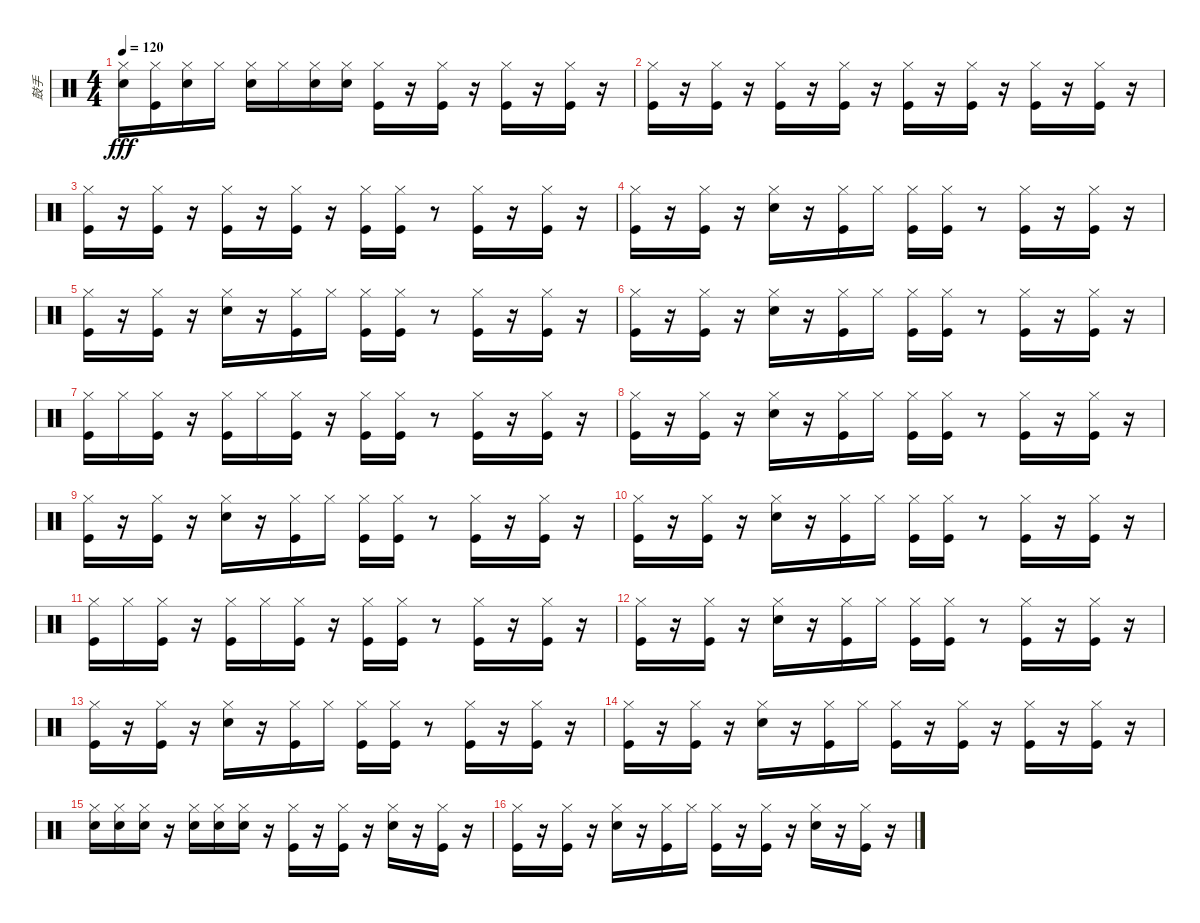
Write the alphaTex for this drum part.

\track ("鼓手" "鼓手") {instrument percussion}
\staff {score}
\articulation defaults
\ts (4 4)
\tempo 120
\clef neutral
\ks c
("Snare (hit) 2" "Hi-Hat (closed)").16{dy fff} ("Kick (hit)" "Hi-Hat (closed)").16 ("Snare (hit) 2" "Hi-Hat (closed)").16 "Hi-Hat (closed)".16 ("Snare (hit) 2" "Hi-Hat (closed)").16 "Hi-Hat (closed)".16 ("Snare (hit) 2" "Hi-Hat (closed)").16 ("Snare (hit) 2" "Hi-Hat (closed)").16 ("Kick (hit)" "Hi-Hat (closed)").16 r.16 ("Kick (hit)" "Hi-Hat (closed)").16 r.16 ("Kick (hit)" "Hi-Hat (closed)").16 r.16 ("Kick (hit)" "Hi-Hat (closed)").16 r.16 |
("Kick (hit)" "Hi-Hat (closed)").16 r.16 ("Kick (hit)" "Hi-Hat (closed)").16 r.16 ("Kick (hit)" "Hi-Hat (closed)").16 r.16 ("Kick (hit)" "Hi-Hat (closed)").16 r.16 ("Kick (hit)" "Hi-Hat (closed)").16 r.16 ("Kick (hit)" "Hi-Hat (closed)").16 r.16 ("Kick (hit)" "Hi-Hat (closed)").16 r.16 ("Kick (hit)" "Hi-Hat (closed)").16 r.16 |
("Kick (hit)" "Hi-Hat (closed)").16 r.16 ("Kick (hit)" "Hi-Hat (closed)").16 r.16 ("Kick (hit)" "Hi-Hat (closed)").16 r.16 ("Kick (hit)" "Hi-Hat (closed)").16 r.16 ("Kick (hit)" "Hi-Hat (closed)").16 ("Kick (hit)" "Hi-Hat (closed)").16 r.8 ("Kick (hit)" "Hi-Hat (closed)").16 r.16 ("Kick (hit)" "Hi-Hat (closed)").16 r.16 |
("Kick (hit)" "Hi-Hat (closed)").16 r.16 ("Kick (hit)" "Hi-Hat (closed)").16 r.16 ("Snare (hit) 2" "Hi-Hat (closed)").16 r.16 ("Kick (hit)" "Hi-Hat (closed)").16 "Hi-Hat (closed)".16 ("Kick (hit)" "Hi-Hat (closed)").16 ("Kick (hit)" "Hi-Hat (closed)").16 r.8 ("Kick (hit)" "Hi-Hat (closed)").16 r.16 ("Kick (hit)" "Hi-Hat (closed)").16 r.16 |
("Kick (hit)" "Hi-Hat (closed)").16 r.16 ("Kick (hit)" "Hi-Hat (closed)").16 r.16 ("Snare (hit) 2" "Hi-Hat (closed)").16 r.16 ("Kick (hit)" "Hi-Hat (closed)").16 "Hi-Hat (closed)".16 ("Kick (hit)" "Hi-Hat (closed)").16 ("Kick (hit)" "Hi-Hat (closed)").16 r.8 ("Kick (hit)" "Hi-Hat (closed)").16 r.16 ("Kick (hit)" "Hi-Hat (closed)").16 r.16 |
("Kick (hit)" "Hi-Hat (closed)").16 r.16 ("Kick (hit)" "Hi-Hat (closed)").16 r.16 ("Snare (hit) 2" "Hi-Hat (closed)").16 r.16 ("Kick (hit)" "Hi-Hat (closed)").16 "Hi-Hat (closed)".16 ("Kick (hit)" "Hi-Hat (closed)").16 ("Kick (hit)" "Hi-Hat (closed)").16 r.8 ("Kick (hit)" "Hi-Hat (closed)").16 r.16 ("Kick (hit)" "Hi-Hat (closed)").16 r.16 |
("Kick (hit)" "Hi-Hat (closed)").16 "Hi-Hat (closed)".16 ("Kick (hit)" "Hi-Hat (closed)").16 r.16 ("Kick (hit)" "Hi-Hat (closed)").16 "Hi-Hat (closed)".16 ("Kick (hit)" "Hi-Hat (closed)").16 r.16 ("Kick (hit)" "Hi-Hat (closed)").16 ("Kick (hit)" "Hi-Hat (closed)").16 r.8 ("Kick (hit)" "Hi-Hat (closed)").16 r.16 ("Kick (hit)" "Hi-Hat (closed)").16 r.16 |
("Kick (hit)" "Hi-Hat (closed)").16 r.16 ("Kick (hit)" "Hi-Hat (closed)").16 r.16 ("Snare (hit) 2" "Hi-Hat (closed)").16 r.16 ("Kick (hit)" "Hi-Hat (closed)").16 "Hi-Hat (closed)".16 ("Kick (hit)" "Hi-Hat (closed)").16 ("Kick (hit)" "Hi-Hat (closed)").16 r.8 ("Kick (hit)" "Hi-Hat (closed)").16 r.16 ("Kick (hit)" "Hi-Hat (closed)").16 r.16 |
("Kick (hit)" "Hi-Hat (closed)").16 r.16 ("Kick (hit)" "Hi-Hat (closed)").16 r.16 ("Snare (hit) 2" "Hi-Hat (closed)").16 r.16 ("Kick (hit)" "Hi-Hat (closed)").16 "Hi-Hat (closed)".16 ("Kick (hit)" "Hi-Hat (closed)").16 ("Kick (hit)" "Hi-Hat (closed)").16 r.8 ("Kick (hit)" "Hi-Hat (closed)").16 r.16 ("Kick (hit)" "Hi-Hat (closed)").16 r.16 |
("Kick (hit)" "Hi-Hat (closed)").16 r.16 ("Kick (hit)" "Hi-Hat (closed)").16 r.16 ("Snare (hit) 2" "Hi-Hat (closed)").16 r.16 ("Kick (hit)" "Hi-Hat (closed)").16 "Hi-Hat (closed)".16 ("Kick (hit)" "Hi-Hat (closed)").16 ("Kick (hit)" "Hi-Hat (closed)").16 r.8 ("Kick (hit)" "Hi-Hat (closed)").16 r.16 ("Kick (hit)" "Hi-Hat (closed)").16 r.16 |
("Kick (hit)" "Hi-Hat (closed)").16 "Hi-Hat (closed)".16 ("Kick (hit)" "Hi-Hat (closed)").16 r.16 ("Kick (hit)" "Hi-Hat (closed)").16 "Hi-Hat (closed)".16 ("Kick (hit)" "Hi-Hat (closed)").16 r.16 ("Kick (hit)" "Hi-Hat (closed)").16 ("Kick (hit)" "Hi-Hat (closed)").16 r.8 ("Kick (hit)" "Hi-Hat (closed)").16 r.16 ("Kick (hit)" "Hi-Hat (closed)").16 r.16 |
("Kick (hit)" "Hi-Hat (closed)").16 r.16 ("Kick (hit)" "Hi-Hat (closed)").16 r.16 ("Snare (hit) 2" "Hi-Hat (closed)").16 r.16 ("Kick (hit)" "Hi-Hat (closed)").16 "Hi-Hat (closed)".16 ("Kick (hit)" "Hi-Hat (closed)").16 ("Kick (hit)" "Hi-Hat (closed)").16 r.8 ("Kick (hit)" "Hi-Hat (closed)").16 r.16 ("Kick (hit)" "Hi-Hat (closed)").16 r.16 |
("Kick (hit)" "Hi-Hat (closed)").16 r.16 ("Kick (hit)" "Hi-Hat (closed)").16 r.16 ("Snare (hit) 2" "Hi-Hat (closed)").16 r.16 ("Kick (hit)" "Hi-Hat (closed)").16 "Hi-Hat (closed)".16 ("Kick (hit)" "Hi-Hat (closed)").16 ("Kick (hit)" "Hi-Hat (closed)").16 r.8 ("Kick (hit)" "Hi-Hat (closed)").16 r.16 ("Kick (hit)" "Hi-Hat (closed)").16 r.16 |
("Kick (hit)" "Hi-Hat (closed)").16 r.16 ("Kick (hit)" "Hi-Hat (closed)").16 r.16 ("Snare (hit) 2" "Hi-Hat (closed)").16 r.16 ("Kick (hit)" "Hi-Hat (closed)").16 "Hi-Hat (closed)".16 ("Kick (hit)" "Hi-Hat (closed)").16 r.16 ("Kick (hit)" "Hi-Hat (closed)").16 r.16 ("Kick (hit)" "Hi-Hat (closed)").16 r.16 ("Kick (hit)" "Hi-Hat (closed)").16 r.16 |
("Snare (hit) 2" "Hi-Hat (closed)").16 ("Snare (hit) 2" "Hi-Hat (closed)").16 ("Snare (hit) 2" "Hi-Hat (closed)").16 r.16 ("Snare (hit) 2" "Hi-Hat (closed)").16 ("Snare (hit) 2" "Hi-Hat (closed)").16 ("Snare (hit) 2" "Hi-Hat (closed)").16 r.16 ("Kick (hit)" "Hi-Hat (closed)").16 r.16 ("Kick (hit)" "Hi-Hat (closed)").16 r.16 ("Snare (hit) 2" "Hi-Hat (closed)").16 r.16 ("Kick (hit)" "Hi-Hat (closed)").16 r.16 |
("Kick (hit)" "Hi-Hat (closed)").16 r.16 ("Kick (hit)" "Hi-Hat (closed)").16 r.16 ("Snare (hit) 2" "Hi-Hat (closed)").16 r.16 ("Kick (hit)" "Hi-Hat (closed)").16 "Hi-Hat (closed)".16 ("Kick (hit)" "Hi-Hat (closed)").16 r.16 ("Kick (hit)" "Hi-Hat (closed)").16 r.16 ("Snare (hit) 2" "Hi-Hat (closed)").16 r.16 ("Kick (hit)" "Hi-Hat (closed)").16 r.16
